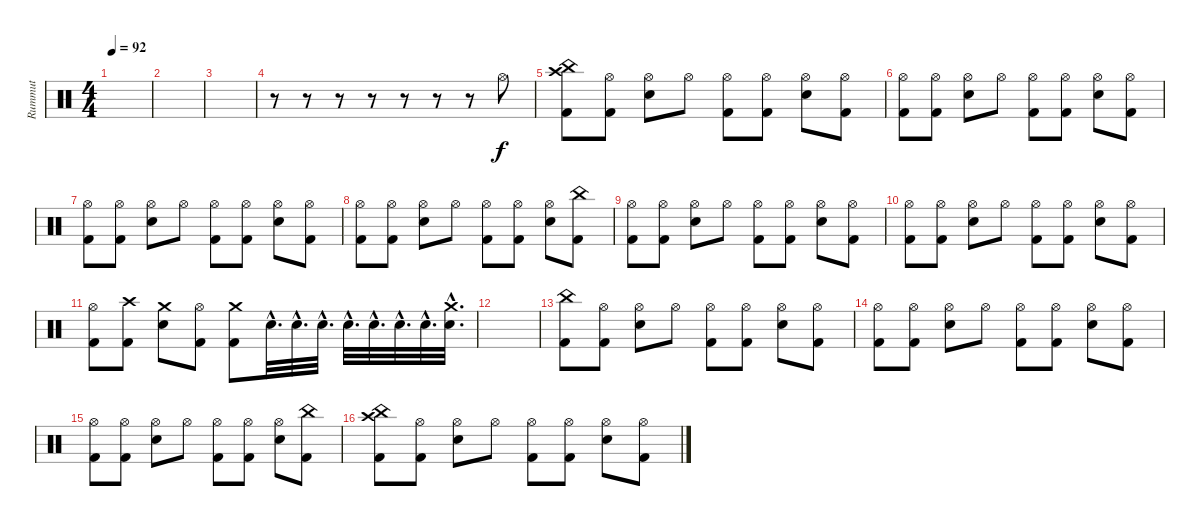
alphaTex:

\track ("Rummut" "Rummut") {instrument percussion}
\staff {score}
\articulation defaults
\ts (4 4)
\tempo 92
\clef neutral
\ks c
|
|
|
r.8 r.8 r.8 r.8 r.8 r.8 r.8 "Hi-Hat (open)".8 |
("China (hit)" "Crash high (hit)" "Kick (hit) 2").8 ("Hi-Hat (open)" "Kick (hit) 2").8 ("Hi-Hat (open)" "Snare (hit) 2").8 "Hi-Hat (open)".8 ("Hi-Hat (open)" "Kick (hit) 2").8 ("Hi-Hat (open)" "Kick (hit) 2").8 ("Hi-Hat (open)" "Snare (hit) 2").8 ("Hi-Hat (open)" "Kick (hit) 2").8 |
("Hi-Hat (open)" "Kick (hit) 2").8 ("Hi-Hat (open)" "Kick (hit) 2").8 ("Hi-Hat (open)" "Snare (hit) 2").8 "Hi-Hat (open)".8 ("Hi-Hat (open)" "Kick (hit) 2").8 ("Hi-Hat (open)" "Kick (hit) 2").8 ("Hi-Hat (open)" "Snare (hit) 2").8 ("Hi-Hat (open)" "Kick (hit) 2").8 |
("Hi-Hat (open)" "Kick (hit) 2").8 ("Hi-Hat (open)" "Kick (hit) 2").8 ("Hi-Hat (open)" "Snare (hit) 2").8 "Hi-Hat (open)".8 ("Hi-Hat (open)" "Kick (hit) 2").8 ("Hi-Hat (open)" "Kick (hit) 2").8 ("Hi-Hat (open)" "Snare (hit) 2").8 ("Hi-Hat (open)" "Kick (hit) 2").8 |
("Hi-Hat (open)" "Kick (hit) 2").8 ("Hi-Hat (open)" "Kick (hit) 2").8 ("Hi-Hat (open)" "Snare (hit) 2").8 "Hi-Hat (open)".8 ("Hi-Hat (open)" "Kick (hit) 2").8 ("Hi-Hat (open)" "Kick (hit) 2").8 ("Hi-Hat (open)" "Snare (hit) 2").8 ("China (hit)" "Kick (hit) 2").8 |
("Hi-Hat (open)" "Kick (hit) 2").8 ("Hi-Hat (open)" "Kick (hit) 2").8 ("Hi-Hat (open)" "Snare (hit) 2").8 "Hi-Hat (open)".8 ("Hi-Hat (open)" "Kick (hit) 2").8 ("Hi-Hat (open)" "Kick (hit) 2").8 ("Hi-Hat (open)" "Snare (hit) 2").8 ("Hi-Hat (open)" "Kick (hit) 2").8 |
("Hi-Hat (open)" "Kick (hit) 2").8 ("Hi-Hat (open)" "Kick (hit) 2").8 ("Hi-Hat (open)" "Snare (hit) 2").8 "Hi-Hat (open)".8 ("Hi-Hat (open)" "Kick (hit) 2").8 ("Hi-Hat (open)" "Kick (hit) 2").8 ("Hi-Hat (open)" "Snare (hit) 2").8 ("Hi-Hat (open)" "Kick (hit) 2").8 |
("Hi-Hat (open)" "Kick (hit) 2").8 ("Crash high (hit)" "Kick (hit) 2").8 ("Crash medium (hit)" "Snare (hit) 2").8 ("Hi-Hat (open)" "Kick (hit) 2").8 ("Crash medium (hit)" "Kick (hit) 2").8 "Snare (hit) 2"{hac}.32{d} "Snare (hit) 2"{hac}.32{d} "Snare (hit) 2"{hac}.32{d} "Snare (hit) 2"{hac}.32{d} "Snare (hit) 2"{hac}.32{d} "Snare (hit) 2"{hac}.32{d} "Snare (hit) 2"{hac}.32{d} ("Crash medium (hit)"{hac} "Snare (hit) 2"{hac}).32{d} |
|
("China (hit)" "Kick (hit) 2").8 ("Hi-Hat (open)" "Kick (hit) 2").8 ("Hi-Hat (open)" "Snare (hit) 2").8 "Hi-Hat (open)".8 ("Hi-Hat (open)" "Kick (hit) 2").8 ("Hi-Hat (open)" "Kick (hit) 2").8 ("Hi-Hat (open)" "Snare (hit) 2").8 ("Hi-Hat (open)" "Kick (hit) 2").8 |
("Hi-Hat (open)" "Kick (hit) 2").8 ("Hi-Hat (open)" "Kick (hit) 2").8 ("Hi-Hat (open)" "Snare (hit) 2").8 "Hi-Hat (open)".8 ("Hi-Hat (open)" "Kick (hit) 2").8 ("Hi-Hat (open)" "Kick (hit) 2").8 ("Hi-Hat (open)" "Snare (hit) 2").8 ("Hi-Hat (open)" "Kick (hit) 2").8 |
("Hi-Hat (open)" "Kick (hit) 2").8 ("Hi-Hat (open)" "Kick (hit) 2").8 ("Hi-Hat (open)" "Snare (hit) 2").8 "Hi-Hat (open)".8 ("Hi-Hat (open)" "Kick (hit) 2").8 ("Hi-Hat (open)" "Kick (hit) 2").8 ("Hi-Hat (open)" "Snare (hit) 2").8 ("China (hit)" "Kick (hit) 2").8 |
("China (hit)" "Crash high (hit)" "Kick (hit) 2").8 ("Hi-Hat (open)" "Kick (hit) 2").8 ("Hi-Hat (open)" "Snare (hit) 2").8 "Hi-Hat (open)".8 ("Hi-Hat (open)" "Kick (hit) 2").8 ("Hi-Hat (open)" "Kick (hit) 2").8 ("Hi-Hat (open)" "Snare (hit) 2").8 ("Hi-Hat (open)" "Kick (hit) 2").8
